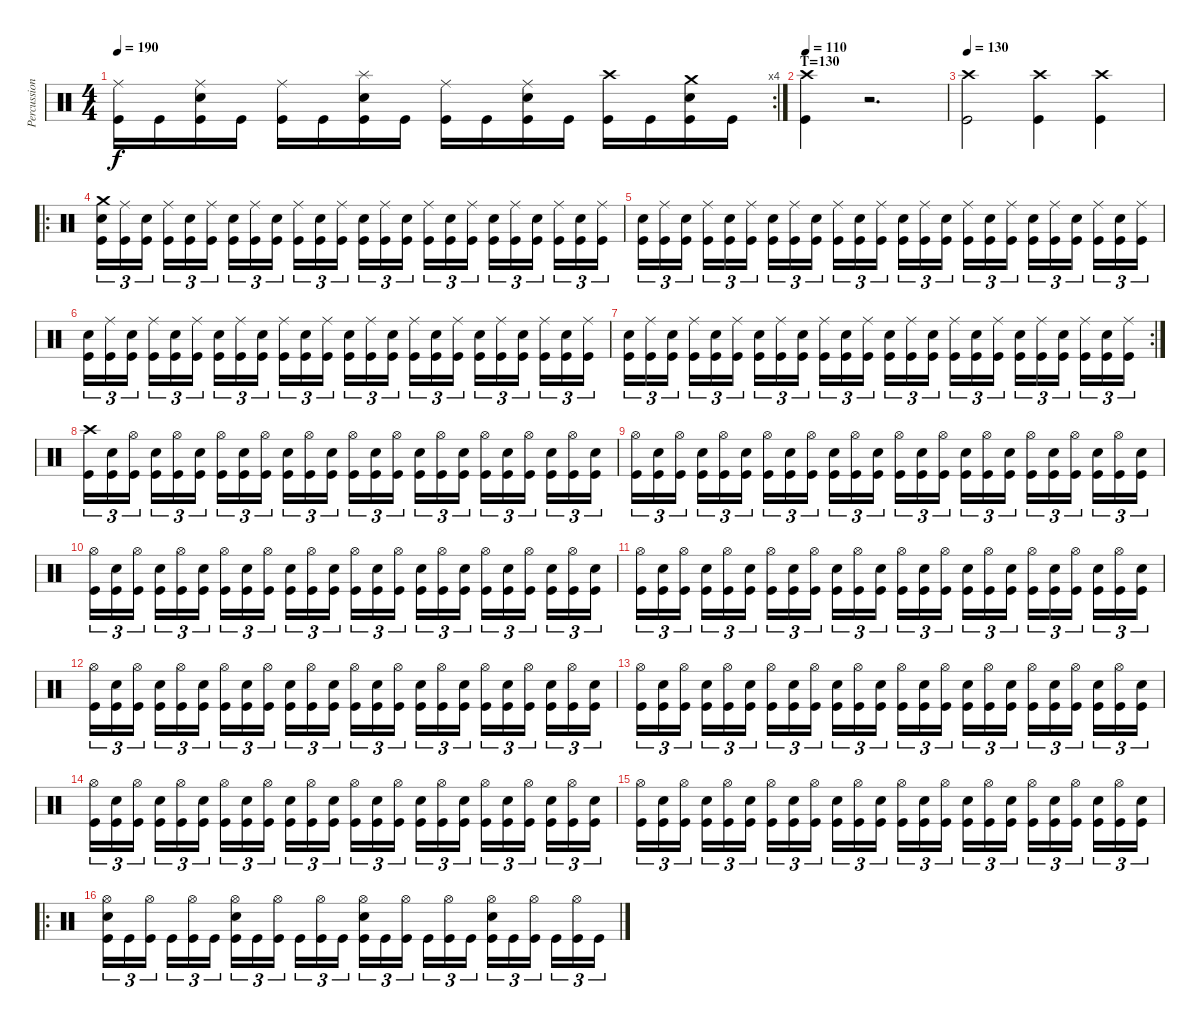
\track ("Percussion" "Percussion") {instrument percussion}
\staff {score}
\articulation defaults
\rc 4
\ts (4 4)
\tempo 190
\clef neutral
\ks c
("Ride (middle)" "Kick (hit)").16{dy f} "Kick (hit)".16 ("Ride (middle)" "Electric Snare (hit)" "Kick (hit)").16 "Kick (hit)".16 ("Ride (middle)" "Kick (hit)").16 "Kick (hit)".16 ("Splash (hit)" "Electric Snare (hit)" "Kick (hit)").16 "Kick (hit)".16 ("Ride (middle)" "Kick (hit)").16 "Kick (hit)".16 ("Ride (middle)" "Electric Snare (hit)" "Kick (hit)").16 "Kick (hit)".16 ("Crash high (hit)" "Kick (hit)").16 "Kick (hit)".16 ("Crash medium (hit)" "Electric Snare (hit)" "Kick (hit)").16 "Kick (hit)".16 |
\section ("" "T=130")
\tempo 110
("Crash high (hit)" "Kick (hit)").4 r.2{d} |
\tempo 130
("Crash high (hit)" "Kick (hit)").2 ("Crash high (hit)" "Kick (hit)").4 ("Crash high (hit)" "Kick (hit)").4 |
\ro
("Crash medium (hit)" "Electric Snare (hit)" "Kick (hit)").16{tu (3 2)} ("Ride (middle)" "Kick (hit)").16{tu (3 2)} ("Electric Snare (hit)" "Kick (hit)").16{tu (3 2)} ("Ride (middle)" "Kick (hit)").16{tu (3 2)} ("Electric Snare (hit)" "Kick (hit)").16{tu (3 2)} ("Ride (middle)" "Kick (hit)").16{tu (3 2)} ("Electric Snare (hit)" "Kick (hit)").16{tu (3 2)} ("Ride (middle)" "Kick (hit)").16{tu (3 2)} ("Electric Snare (hit)" "Kick (hit)").16{tu (3 2)} ("Ride (middle)" "Kick (hit)").16{tu (3 2)} ("Electric Snare (hit)" "Kick (hit)").16{tu (3 2)} ("Ride (middle)" "Kick (hit)").16{tu (3 2)} ("Electric Snare (hit)" "Kick (hit)").16{tu (3 2)} ("Ride (middle)" "Kick (hit)").16{tu (3 2)} ("Electric Snare (hit)" "Kick (hit)").16{tu (3 2)} ("Ride (middle)" "Kick (hit)").16{tu (3 2)} ("Electric Snare (hit)" "Kick (hit)").16{tu (3 2)} ("Ride (middle)" "Kick (hit)").16{tu (3 2)} ("Electric Snare (hit)" "Kick (hit)").16{tu (3 2)} ("Ride (middle)" "Kick (hit)").16{tu (3 2)} ("Electric Snare (hit)" "Kick (hit)").16{tu (3 2)} ("Ride (middle)" "Kick (hit)").16{tu (3 2)} ("Electric Snare (hit)" "Kick (hit)").16{tu (3 2)} ("Ride (middle)" "Kick (hit)").16{tu (3 2)} |
("Electric Snare (hit)" "Kick (hit)").16{tu (3 2)} ("Ride (middle)" "Kick (hit)").16{tu (3 2)} ("Electric Snare (hit)" "Kick (hit)").16{tu (3 2)} ("Ride (middle)" "Kick (hit)").16{tu (3 2)} ("Electric Snare (hit)" "Kick (hit)").16{tu (3 2)} ("Ride (middle)" "Kick (hit)").16{tu (3 2)} ("Electric Snare (hit)" "Kick (hit)").16{tu (3 2)} ("Ride (middle)" "Kick (hit)").16{tu (3 2)} ("Electric Snare (hit)" "Kick (hit)").16{tu (3 2)} ("Ride (middle)" "Kick (hit)").16{tu (3 2)} ("Electric Snare (hit)" "Kick (hit)").16{tu (3 2)} ("Ride (middle)" "Kick (hit)").16{tu (3 2)} ("Electric Snare (hit)" "Kick (hit)").16{tu (3 2)} ("Ride (middle)" "Kick (hit)").16{tu (3 2)} ("Electric Snare (hit)" "Kick (hit)").16{tu (3 2)} ("Ride (middle)" "Kick (hit)").16{tu (3 2)} ("Electric Snare (hit)" "Kick (hit)").16{tu (3 2)} ("Ride (middle)" "Kick (hit)").16{tu (3 2)} ("Electric Snare (hit)" "Kick (hit)").16{tu (3 2)} ("Ride (middle)" "Kick (hit)").16{tu (3 2)} ("Electric Snare (hit)" "Kick (hit)").16{tu (3 2)} ("Ride (middle)" "Kick (hit)").16{tu (3 2)} ("Electric Snare (hit)" "Kick (hit)").16{tu (3 2)} ("Ride (middle)" "Kick (hit)").16{tu (3 2)} |
("Electric Snare (hit)" "Kick (hit)").16{tu (3 2)} ("Ride (middle)" "Kick (hit)").16{tu (3 2)} ("Electric Snare (hit)" "Kick (hit)").16{tu (3 2)} ("Ride (middle)" "Kick (hit)").16{tu (3 2)} ("Electric Snare (hit)" "Kick (hit)").16{tu (3 2)} ("Ride (middle)" "Kick (hit)").16{tu (3 2)} ("Electric Snare (hit)" "Kick (hit)").16{tu (3 2)} ("Ride (middle)" "Kick (hit)").16{tu (3 2)} ("Electric Snare (hit)" "Kick (hit)").16{tu (3 2)} ("Ride (middle)" "Kick (hit)").16{tu (3 2)} ("Electric Snare (hit)" "Kick (hit)").16{tu (3 2)} ("Ride (middle)" "Kick (hit)").16{tu (3 2)} ("Electric Snare (hit)" "Kick (hit)").16{tu (3 2)} ("Ride (middle)" "Kick (hit)").16{tu (3 2)} ("Electric Snare (hit)" "Kick (hit)").16{tu (3 2)} ("Ride (middle)" "Kick (hit)").16{tu (3 2)} ("Electric Snare (hit)" "Kick (hit)").16{tu (3 2)} ("Ride (middle)" "Kick (hit)").16{tu (3 2)} ("Electric Snare (hit)" "Kick (hit)").16{tu (3 2)} ("Ride (middle)" "Kick (hit)").16{tu (3 2)} ("Electric Snare (hit)" "Kick (hit)").16{tu (3 2)} ("Ride (middle)" "Kick (hit)").16{tu (3 2)} ("Electric Snare (hit)" "Kick (hit)").16{tu (3 2)} ("Ride (middle)" "Kick (hit)").16{tu (3 2)} |
\rc 2
("Electric Snare (hit)" "Kick (hit)").16{tu (3 2)} ("Ride (middle)" "Kick (hit)").16{tu (3 2)} ("Electric Snare (hit)" "Kick (hit)").16{tu (3 2)} ("Ride (middle)" "Kick (hit)").16{tu (3 2)} ("Electric Snare (hit)" "Kick (hit)").16{tu (3 2)} ("Ride (middle)" "Kick (hit)").16{tu (3 2)} ("Electric Snare (hit)" "Kick (hit)").16{tu (3 2)} ("Ride (middle)" "Kick (hit)").16{tu (3 2)} ("Electric Snare (hit)" "Kick (hit)").16{tu (3 2)} ("Ride (middle)" "Kick (hit)").16{tu (3 2)} ("Electric Snare (hit)" "Kick (hit)").16{tu (3 2)} ("Ride (middle)" "Kick (hit)").16{tu (3 2)} ("Electric Snare (hit)" "Kick (hit)").16{tu (3 2)} ("Ride (middle)" "Kick (hit)").16{tu (3 2)} ("Electric Snare (hit)" "Kick (hit)").16{tu (3 2)} ("Ride (middle)" "Kick (hit)").16{tu (3 2)} ("Electric Snare (hit)" "Kick (hit)").16{tu (3 2)} ("Ride (middle)" "Kick (hit)").16{tu (3 2)} ("Electric Snare (hit)" "Kick (hit)").16{tu (3 2)} ("Ride (middle)" "Kick (hit)").16{tu (3 2)} ("Electric Snare (hit)" "Kick (hit)").16{tu (3 2)} ("Ride (middle)" "Kick (hit)").16{tu (3 2)} ("Electric Snare (hit)" "Kick (hit)").16{tu (3 2)} ("Ride (middle)" "Kick (hit)").16{tu (3 2)} |
("Crash high (hit)" "Kick (hit)").16{tu (3 2)} ("Electric Snare (hit)" "Kick (hit)").16{tu (3 2)} ("Hi-Hat (open)" "Kick (hit)").16{tu (3 2)} ("Electric Snare (hit)" "Kick (hit)").16{tu (3 2)} ("Hi-Hat (open)" "Kick (hit)").16{tu (3 2)} ("Electric Snare (hit)" "Kick (hit)").16{tu (3 2)} ("Hi-Hat (open)" "Kick (hit)").16{tu (3 2)} ("Electric Snare (hit)" "Kick (hit)").16{tu (3 2)} ("Hi-Hat (open)" "Kick (hit)").16{tu (3 2)} ("Electric Snare (hit)" "Kick (hit)").16{tu (3 2)} ("Hi-Hat (open)" "Kick (hit)").16{tu (3 2)} ("Electric Snare (hit)" "Kick (hit)").16{tu (3 2)} ("Hi-Hat (open)" "Kick (hit)").16{tu (3 2)} ("Electric Snare (hit)" "Kick (hit)").16{tu (3 2)} ("Hi-Hat (open)" "Kick (hit)").16{tu (3 2)} ("Electric Snare (hit)" "Kick (hit)").16{tu (3 2)} ("Hi-Hat (open)" "Kick (hit)").16{tu (3 2)} ("Electric Snare (hit)" "Kick (hit)").16{tu (3 2)} ("Hi-Hat (open)" "Kick (hit)").16{tu (3 2)} ("Electric Snare (hit)" "Kick (hit)").16{tu (3 2)} ("Hi-Hat (open)" "Kick (hit)").16{tu (3 2)} ("Electric Snare (hit)" "Kick (hit)").16{tu (3 2)} ("Hi-Hat (open)" "Kick (hit)").16{tu (3 2)} ("Electric Snare (hit)" "Kick (hit)").16{tu (3 2)} |
("Hi-Hat (open)" "Kick (hit)").16{tu (3 2)} ("Electric Snare (hit)" "Kick (hit)").16{tu (3 2)} ("Hi-Hat (open)" "Kick (hit)").16{tu (3 2)} ("Electric Snare (hit)" "Kick (hit)").16{tu (3 2)} ("Hi-Hat (open)" "Kick (hit)").16{tu (3 2)} ("Electric Snare (hit)" "Kick (hit)").16{tu (3 2)} ("Hi-Hat (open)" "Kick (hit)").16{tu (3 2)} ("Electric Snare (hit)" "Kick (hit)").16{tu (3 2)} ("Hi-Hat (open)" "Kick (hit)").16{tu (3 2)} ("Electric Snare (hit)" "Kick (hit)").16{tu (3 2)} ("Hi-Hat (open)" "Kick (hit)").16{tu (3 2)} ("Electric Snare (hit)" "Kick (hit)").16{tu (3 2)} ("Hi-Hat (open)" "Kick (hit)").16{tu (3 2)} ("Electric Snare (hit)" "Kick (hit)").16{tu (3 2)} ("Hi-Hat (open)" "Kick (hit)").16{tu (3 2)} ("Electric Snare (hit)" "Kick (hit)").16{tu (3 2)} ("Hi-Hat (open)" "Kick (hit)").16{tu (3 2)} ("Electric Snare (hit)" "Kick (hit)").16{tu (3 2)} ("Hi-Hat (open)" "Kick (hit)").16{tu (3 2)} ("Electric Snare (hit)" "Kick (hit)").16{tu (3 2)} ("Hi-Hat (open)" "Kick (hit)").16{tu (3 2)} ("Electric Snare (hit)" "Kick (hit)").16{tu (3 2)} ("Hi-Hat (open)" "Kick (hit)").16{tu (3 2)} ("Electric Snare (hit)" "Kick (hit)").16{tu (3 2)} |
("Hi-Hat (open)" "Kick (hit)").16{tu (3 2)} ("Electric Snare (hit)" "Kick (hit)").16{tu (3 2)} ("Hi-Hat (open)" "Kick (hit)").16{tu (3 2)} ("Electric Snare (hit)" "Kick (hit)").16{tu (3 2)} ("Hi-Hat (open)" "Kick (hit)").16{tu (3 2)} ("Electric Snare (hit)" "Kick (hit)").16{tu (3 2)} ("Hi-Hat (open)" "Kick (hit)").16{tu (3 2)} ("Electric Snare (hit)" "Kick (hit)").16{tu (3 2)} ("Hi-Hat (open)" "Kick (hit)").16{tu (3 2)} ("Electric Snare (hit)" "Kick (hit)").16{tu (3 2)} ("Hi-Hat (open)" "Kick (hit)").16{tu (3 2)} ("Electric Snare (hit)" "Kick (hit)").16{tu (3 2)} ("Hi-Hat (open)" "Kick (hit)").16{tu (3 2)} ("Electric Snare (hit)" "Kick (hit)").16{tu (3 2)} ("Hi-Hat (open)" "Kick (hit)").16{tu (3 2)} ("Electric Snare (hit)" "Kick (hit)").16{tu (3 2)} ("Hi-Hat (open)" "Kick (hit)").16{tu (3 2)} ("Electric Snare (hit)" "Kick (hit)").16{tu (3 2)} ("Hi-Hat (open)" "Kick (hit)").16{tu (3 2)} ("Electric Snare (hit)" "Kick (hit)").16{tu (3 2)} ("Hi-Hat (open)" "Kick (hit)").16{tu (3 2)} ("Electric Snare (hit)" "Kick (hit)").16{tu (3 2)} ("Hi-Hat (open)" "Kick (hit)").16{tu (3 2)} ("Electric Snare (hit)" "Kick (hit)").16{tu (3 2)} |
("Hi-Hat (open)" "Kick (hit)").16{tu (3 2)} ("Electric Snare (hit)" "Kick (hit)").16{tu (3 2)} ("Hi-Hat (open)" "Kick (hit)").16{tu (3 2)} ("Electric Snare (hit)" "Kick (hit)").16{tu (3 2)} ("Hi-Hat (open)" "Kick (hit)").16{tu (3 2)} ("Electric Snare (hit)" "Kick (hit)").16{tu (3 2)} ("Hi-Hat (open)" "Kick (hit)").16{tu (3 2)} ("Electric Snare (hit)" "Kick (hit)").16{tu (3 2)} ("Hi-Hat (open)" "Kick (hit)").16{tu (3 2)} ("Electric Snare (hit)" "Kick (hit)").16{tu (3 2)} ("Hi-Hat (open)" "Kick (hit)").16{tu (3 2)} ("Electric Snare (hit)" "Kick (hit)").16{tu (3 2)} ("Hi-Hat (open)" "Kick (hit)").16{tu (3 2)} ("Electric Snare (hit)" "Kick (hit)").16{tu (3 2)} ("Hi-Hat (open)" "Kick (hit)").16{tu (3 2)} ("Electric Snare (hit)" "Kick (hit)").16{tu (3 2)} ("Hi-Hat (open)" "Kick (hit)").16{tu (3 2)} ("Electric Snare (hit)" "Kick (hit)").16{tu (3 2)} ("Hi-Hat (open)" "Kick (hit)").16{tu (3 2)} ("Electric Snare (hit)" "Kick (hit)").16{tu (3 2)} ("Hi-Hat (open)" "Kick (hit)").16{tu (3 2)} ("Electric Snare (hit)" "Kick (hit)").16{tu (3 2)} ("Hi-Hat (open)" "Kick (hit)").16{tu (3 2)} ("Electric Snare (hit)" "Kick (hit)").16{tu (3 2)} |
("Hi-Hat (open)" "Kick (hit)").16{tu (3 2)} ("Electric Snare (hit)" "Kick (hit)").16{tu (3 2)} ("Hi-Hat (open)" "Kick (hit)").16{tu (3 2)} ("Electric Snare (hit)" "Kick (hit)").16{tu (3 2)} ("Hi-Hat (open)" "Kick (hit)").16{tu (3 2)} ("Electric Snare (hit)" "Kick (hit)").16{tu (3 2)} ("Hi-Hat (open)" "Kick (hit)").16{tu (3 2)} ("Electric Snare (hit)" "Kick (hit)").16{tu (3 2)} ("Hi-Hat (open)" "Kick (hit)").16{tu (3 2)} ("Electric Snare (hit)" "Kick (hit)").16{tu (3 2)} ("Hi-Hat (open)" "Kick (hit)").16{tu (3 2)} ("Electric Snare (hit)" "Kick (hit)").16{tu (3 2)} ("Hi-Hat (open)" "Kick (hit)").16{tu (3 2)} ("Electric Snare (hit)" "Kick (hit)").16{tu (3 2)} ("Hi-Hat (open)" "Kick (hit)").16{tu (3 2)} ("Electric Snare (hit)" "Kick (hit)").16{tu (3 2)} ("Hi-Hat (open)" "Kick (hit)").16{tu (3 2)} ("Electric Snare (hit)" "Kick (hit)").16{tu (3 2)} ("Hi-Hat (open)" "Kick (hit)").16{tu (3 2)} ("Electric Snare (hit)" "Kick (hit)").16{tu (3 2)} ("Hi-Hat (open)" "Kick (hit)").16{tu (3 2)} ("Electric Snare (hit)" "Kick (hit)").16{tu (3 2)} ("Hi-Hat (open)" "Kick (hit)").16{tu (3 2)} ("Electric Snare (hit)" "Kick (hit)").16{tu (3 2)} |
("Hi-Hat (open)" "Kick (hit)").16{tu (3 2)} ("Electric Snare (hit)" "Kick (hit)").16{tu (3 2)} ("Hi-Hat (open)" "Kick (hit)").16{tu (3 2)} ("Electric Snare (hit)" "Kick (hit)").16{tu (3 2)} ("Hi-Hat (open)" "Kick (hit)").16{tu (3 2)} ("Electric Snare (hit)" "Kick (hit)").16{tu (3 2)} ("Hi-Hat (open)" "Kick (hit)").16{tu (3 2)} ("Electric Snare (hit)" "Kick (hit)").16{tu (3 2)} ("Hi-Hat (open)" "Kick (hit)").16{tu (3 2)} ("Electric Snare (hit)" "Kick (hit)").16{tu (3 2)} ("Hi-Hat (open)" "Kick (hit)").16{tu (3 2)} ("Electric Snare (hit)" "Kick (hit)").16{tu (3 2)} ("Hi-Hat (open)" "Kick (hit)").16{tu (3 2)} ("Electric Snare (hit)" "Kick (hit)").16{tu (3 2)} ("Hi-Hat (open)" "Kick (hit)").16{tu (3 2)} ("Electric Snare (hit)" "Kick (hit)").16{tu (3 2)} ("Hi-Hat (open)" "Kick (hit)").16{tu (3 2)} ("Electric Snare (hit)" "Kick (hit)").16{tu (3 2)} ("Hi-Hat (open)" "Kick (hit)").16{tu (3 2)} ("Electric Snare (hit)" "Kick (hit)").16{tu (3 2)} ("Hi-Hat (open)" "Kick (hit)").16{tu (3 2)} ("Electric Snare (hit)" "Kick (hit)").16{tu (3 2)} ("Hi-Hat (open)" "Kick (hit)").16{tu (3 2)} ("Electric Snare (hit)" "Kick (hit)").16{tu (3 2)} |
("Hi-Hat (open)" "Kick (hit)").16{tu (3 2)} ("Electric Snare (hit)" "Kick (hit)").16{tu (3 2)} ("Hi-Hat (open)" "Kick (hit)").16{tu (3 2)} ("Electric Snare (hit)" "Kick (hit)").16{tu (3 2)} ("Hi-Hat (open)" "Kick (hit)").16{tu (3 2)} ("Electric Snare (hit)" "Kick (hit)").16{tu (3 2)} ("Hi-Hat (open)" "Kick (hit)").16{tu (3 2)} ("Electric Snare (hit)" "Kick (hit)").16{tu (3 2)} ("Hi-Hat (open)" "Kick (hit)").16{tu (3 2)} ("Electric Snare (hit)" "Kick (hit)").16{tu (3 2)} ("Hi-Hat (open)" "Kick (hit)").16{tu (3 2)} ("Electric Snare (hit)" "Kick (hit)").16{tu (3 2)} ("Hi-Hat (open)" "Kick (hit)").16{tu (3 2)} ("Electric Snare (hit)" "Kick (hit)").16{tu (3 2)} ("Hi-Hat (open)" "Kick (hit)").16{tu (3 2)} ("Electric Snare (hit)" "Kick (hit)").16{tu (3 2)} ("Hi-Hat (open)" "Kick (hit)").16{tu (3 2)} ("Electric Snare (hit)" "Kick (hit)").16{tu (3 2)} ("Hi-Hat (open)" "Kick (hit)").16{tu (3 2)} ("Electric Snare (hit)" "Kick (hit)").16{tu (3 2)} ("Hi-Hat (open)" "Kick (hit)").16{tu (3 2)} ("Electric Snare (hit)" "Kick (hit)").16{tu (3 2)} ("Hi-Hat (open)" "Kick (hit)").16{tu (3 2)} ("Electric Snare (hit)" "Kick (hit)").16{tu (3 2)} |
("Hi-Hat (open)" "Kick (hit)").16{tu (3 2)} ("Electric Snare (hit)" "Kick (hit)").16{tu (3 2)} ("Hi-Hat (open)" "Kick (hit)").16{tu (3 2)} ("Electric Snare (hit)" "Kick (hit)").16{tu (3 2)} ("Hi-Hat (open)" "Kick (hit)").16{tu (3 2)} ("Electric Snare (hit)" "Kick (hit)").16{tu (3 2)} ("Hi-Hat (open)" "Kick (hit)").16{tu (3 2)} ("Electric Snare (hit)" "Kick (hit)").16{tu (3 2)} ("Hi-Hat (open)" "Kick (hit)").16{tu (3 2)} ("Electric Snare (hit)" "Kick (hit)").16{tu (3 2)} ("Hi-Hat (open)" "Kick (hit)").16{tu (3 2)} ("Electric Snare (hit)" "Kick (hit)").16{tu (3 2)} ("Hi-Hat (open)" "Kick (hit)").16{tu (3 2)} ("Electric Snare (hit)" "Kick (hit)").16{tu (3 2)} ("Hi-Hat (open)" "Kick (hit)").16{tu (3 2)} ("Electric Snare (hit)" "Kick (hit)").16{tu (3 2)} ("Hi-Hat (open)" "Kick (hit)").16{tu (3 2)} ("Electric Snare (hit)" "Kick (hit)").16{tu (3 2)} ("Hi-Hat (open)" "Kick (hit)").16{tu (3 2)} ("Electric Snare (hit)" "Kick (hit)").16{tu (3 2)} ("Hi-Hat (open)" "Kick (hit)").16{tu (3 2)} ("Electric Snare (hit)" "Kick (hit)").16{tu (3 2)} ("Hi-Hat (open)" "Kick (hit)").16{tu (3 2)} ("Electric Snare (hit)" "Kick (hit)").16{tu (3 2)} |
\ro
("Hi-Hat (open)" "Electric Snare (hit)" "Kick (hit)").16{tu (3 2)} "Kick (hit)".16{tu (3 2)} ("Hi-Hat (open)" "Kick (hit)").16{tu (3 2)} "Kick (hit)".16{tu (3 2)} ("Hi-Hat (open)" "Kick (hit)").16{tu (3 2)} "Kick (hit)".16{tu (3 2)} ("Hi-Hat (open)" "Electric Snare (hit)" "Kick (hit)").16{tu (3 2)} "Kick (hit)".16{tu (3 2)} ("Hi-Hat (open)" "Kick (hit)").16{tu (3 2)} "Kick (hit)".16{tu (3 2)} ("Hi-Hat (open)" "Kick (hit)").16{tu (3 2)} "Kick (hit)".16{tu (3 2)} ("Hi-Hat (open)" "Electric Snare (hit)" "Kick (hit)").16{tu (3 2)} "Kick (hit)".16{tu (3 2)} ("Hi-Hat (open)" "Kick (hit)").16{tu (3 2)} "Kick (hit)".16{tu (3 2)} ("Hi-Hat (open)" "Kick (hit)").16{tu (3 2)} "Kick (hit)".16{tu (3 2)} ("Hi-Hat (open)" "Electric Snare (hit)" "Kick (hit)").16{tu (3 2)} "Kick (hit)".16{tu (3 2)} ("Hi-Hat (open)" "Kick (hit)").16{tu (3 2)} "Kick (hit)".16{tu (3 2)} ("Hi-Hat (open)" "Kick (hit)").16{tu (3 2)} "Kick (hit)".16{tu (3 2)}
